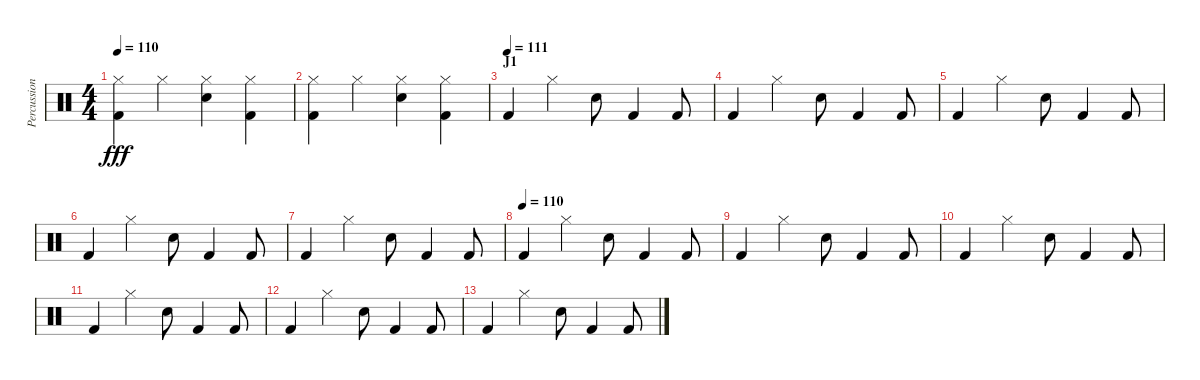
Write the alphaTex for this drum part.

\track ("Percussion" "Percussion") {instrument percussion}
\staff {score}
\articulation defaults
\ts (4 4)
\tempo 110
\clef neutral
\ks c
("Kick (hit) 2" "Hi-Hat (closed)").4{dy fff} "Hi-Hat (closed)".4 ("Electric Snare (hit)" "Hi-Hat (closed)").4 ("Kick (hit) 2" "Hi-Hat (closed)").4 |
("Kick (hit) 2" "Hi-Hat (closed)").4 "Hi-Hat (closed)".4 ("Electric Snare (hit)" "Hi-Hat (closed)").4 ("Kick (hit) 2" "Hi-Hat (closed)").4 |
\section ("" "J1")
\tempo (111)
"Kick (hit) 2".4 "Hi-Hat (closed)".4 "Electric Snare (hit)".8 "Kick (hit) 2".4 "Kick (hit) 2".8 |
"Kick (hit) 2".4 "Hi-Hat (closed)".4 "Electric Snare (hit)".8 "Kick (hit) 2".4 "Kick (hit) 2".8 |
"Kick (hit) 2".4 "Hi-Hat (closed)".4 "Electric Snare (hit)".8 "Kick (hit) 2".4 "Kick (hit) 2".8 |
"Kick (hit) 2".4 "Hi-Hat (closed)".4 "Electric Snare (hit)".8 "Kick (hit) 2".4 "Kick (hit) 2".8 |
"Kick (hit) 2".4 "Hi-Hat (closed)".4 "Electric Snare (hit)".8 "Kick (hit) 2".4 "Kick (hit) 2".8 |
\tempo (110)
"Kick (hit) 2".4 "Hi-Hat (closed)".4 "Electric Snare (hit)".8 "Kick (hit) 2".4 "Kick (hit) 2".8 |
"Kick (hit) 2".4 "Hi-Hat (closed)".4 "Electric Snare (hit)".8 "Kick (hit) 2".4 "Kick (hit) 2".8 |
"Kick (hit) 2".4 "Hi-Hat (closed)".4 "Electric Snare (hit)".8 "Kick (hit) 2".4 "Kick (hit) 2".8 |
"Kick (hit) 2".4 "Hi-Hat (closed)".4 "Electric Snare (hit)".8 "Kick (hit) 2".4 "Kick (hit) 2".8 |
"Kick (hit) 2".4 "Hi-Hat (closed)".4 "Electric Snare (hit)".8 "Kick (hit) 2".4 "Kick (hit) 2".8 |
"Kick (hit) 2".4 "Hi-Hat (closed)".4 "Electric Snare (hit)".8 "Kick (hit) 2".4 "Kick (hit) 2".8
